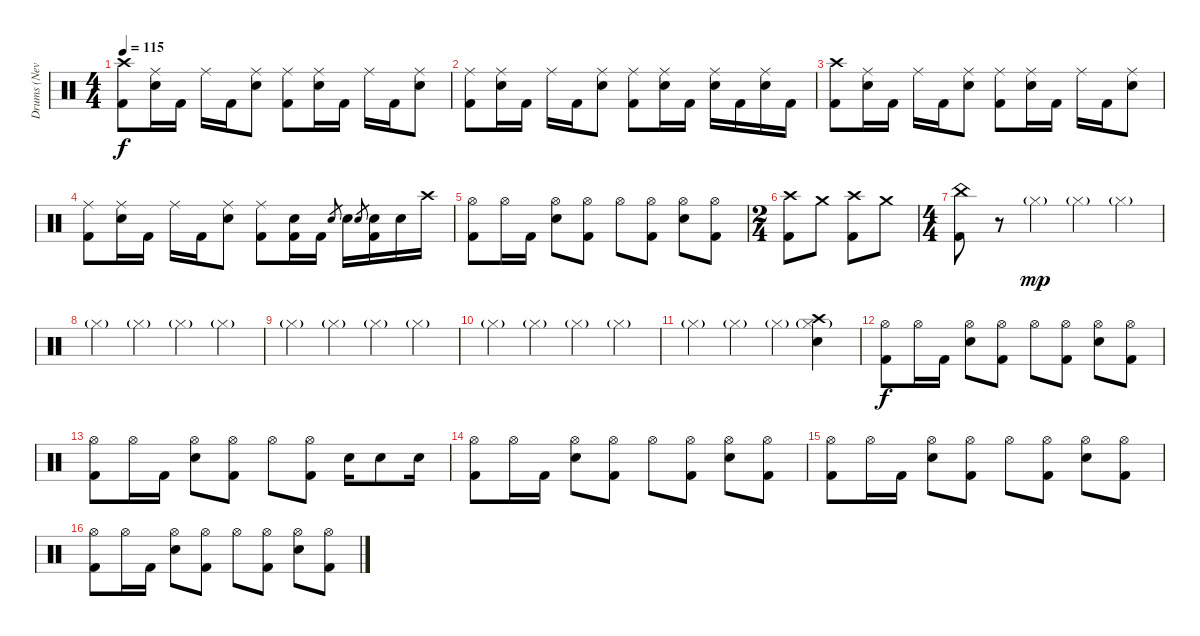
\track ("Drums (Nevi)" "Drums (Nev") {instrument percussion}
\staff {score}
\articulation defaults
\ts (4 4)
\tempo 115
\clef neutral
\ks c
("Kick (hit) 2" "Crash high (hit)").8{dy f} ("Snare (hit) 2" "Ride (middle)").16 "Kick (hit) 2".16 "Ride (middle)".16 "Kick (hit) 2".16 ("Snare (hit) 2" "Ride (middle)").8 ("Kick (hit) 2" "Ride (middle)").8 ("Snare (hit) 2" "Ride (middle)").16 "Kick (hit) 2".16 "Ride (middle)".16 "Kick (hit) 2".16 ("Snare (hit) 2" "Ride (middle)").8 |
("Kick (hit) 2" "Ride (middle)").8 ("Snare (hit) 2" "Ride (middle)").16 "Kick (hit) 2".16 "Ride (middle)".16 "Kick (hit) 2".16 ("Snare (hit) 2" "Ride (middle)").8 ("Kick (hit) 2" "Ride (middle)").8 ("Snare (hit) 2" "Ride (middle)").16 "Kick (hit) 2".16 ("Snare (hit) 2" "Ride (middle)").16 "Kick (hit) 2".16 ("Snare (hit) 2" "Ride (middle)").16 "Kick (hit) 2".16 |
("Kick (hit) 2" "Crash high (hit)").8 ("Snare (hit) 2" "Ride (middle)").16 "Kick (hit) 2".16 "Ride (middle)".16 "Kick (hit) 2".16 ("Snare (hit) 2" "Ride (middle)").8 ("Kick (hit) 2" "Ride (middle)").8 ("Snare (hit) 2" "Ride (middle)").16 "Kick (hit) 2".16 "Ride (middle)".16 "Kick (hit) 2".16 ("Snare (hit) 2" "Ride (middle)").8 |
("Kick (hit) 2" "Ride (middle)").8 ("Snare (hit) 2" "Ride (middle)").16 "Kick (hit) 2".16 "Ride (middle)".16 "Kick (hit) 2".16 ("Snare (hit) 2" "Ride (middle)").8 ("Kick (hit) 2" "Ride (middle)").8 ("Kick (hit) 2" "Snare (hit) 2").16 "Kick (hit) 2".16 "Snare (hit) 2".8{gr} "Snare (hit) 2".16 "Snare (hit) 2".8{gr} ("Kick (hit) 2" "Snare (hit) 2").16 "Snare (hit) 2".16 "Crash high (hit)".16 |
("Kick (hit) 2" "Hi-Hat (open)").8 "Hi-Hat (open)".16 "Kick (hit) 2".16 ("Snare (hit) 2" "Hi-Hat (open)").8 ("Kick (hit) 2" "Hi-Hat (open)").8 "Hi-Hat (open)".8 ("Kick (hit) 2" "Hi-Hat (open)").8 ("Snare (hit) 2" "Hi-Hat (open)").8 ("Kick (hit) 2" "Hi-Hat (open)").8 |
\ts (2 4)
("Kick (hit) 2" "Crash high (hit)").8 "Crash medium (hit)".8 ("Kick (hit) 2" "Crash high (hit)").8 "Crash medium (hit)".8 |
\ts (4 4)
("Kick (hit) 2" "China (hit)").8 r.8 "Hi-Hat (closed)"{g}.4{dy mp} "Hi-Hat (closed)"{g}.4 "Hi-Hat (closed)"{g}.4 |
"Hi-Hat (closed)"{g}.4 "Hi-Hat (closed)"{g}.4 "Hi-Hat (closed)"{g}.4 "Hi-Hat (closed)"{g}.4 |
"Hi-Hat (closed)"{g}.4 "Hi-Hat (closed)"{g}.4 "Hi-Hat (closed)"{g}.4 "Hi-Hat (closed)"{g}.4 |
"Hi-Hat (closed)"{g}.4 "Hi-Hat (closed)"{g}.4 "Hi-Hat (closed)"{g}.4 "Hi-Hat (closed)"{g}.4 |
"Hi-Hat (closed)"{g}.4 "Hi-Hat (closed)"{g}.4 "Hi-Hat (closed)"{g}.4 ("Hi-Hat (closed)"{g} "Snare (hit) 2" "Crash high (hit)").4 |
("Kick (hit) 2" "Hi-Hat (open)").8{dy f} "Hi-Hat (open)".16 "Kick (hit) 2".16 ("Snare (hit) 2" "Hi-Hat (open)").8 ("Kick (hit) 2" "Hi-Hat (open)").8 "Hi-Hat (open)".8 ("Kick (hit) 2" "Hi-Hat (open)").8 ("Snare (hit) 2" "Hi-Hat (open)").8 ("Kick (hit) 2" "Hi-Hat (open)").8 |
("Kick (hit) 2" "Hi-Hat (open)").8 "Hi-Hat (open)".16 "Kick (hit) 2".16 ("Snare (hit) 2" "Hi-Hat (open)").8 ("Kick (hit) 2" "Hi-Hat (open)").8 "Hi-Hat (open)".8 ("Kick (hit) 2" "Hi-Hat (open)").8 "Snare (hit) 2".16 "Snare (hit) 2".8 "Snare (hit) 2".16 |
("Kick (hit) 2" "Hi-Hat (open)").8 "Hi-Hat (open)".16 "Kick (hit) 2".16 ("Snare (hit) 2" "Hi-Hat (open)").8 ("Kick (hit) 2" "Hi-Hat (open)").8 "Hi-Hat (open)".8 ("Kick (hit) 2" "Hi-Hat (open)").8 ("Snare (hit) 2" "Hi-Hat (open)").8 ("Kick (hit) 2" "Hi-Hat (open)").8 |
("Kick (hit) 2" "Hi-Hat (open)").8 "Hi-Hat (open)".16 "Kick (hit) 2".16 ("Snare (hit) 2" "Hi-Hat (open)").8 ("Kick (hit) 2" "Hi-Hat (open)").8 "Hi-Hat (open)".8 ("Kick (hit) 2" "Hi-Hat (open)").8 ("Snare (hit) 2" "Hi-Hat (open)").8 ("Kick (hit) 2" "Hi-Hat (open)").8 |
("Kick (hit) 2" "Hi-Hat (open)").8 "Hi-Hat (open)".16 "Kick (hit) 2".16 ("Snare (hit) 2" "Hi-Hat (open)").8 ("Kick (hit) 2" "Hi-Hat (open)").8 "Hi-Hat (open)".8 ("Kick (hit) 2" "Hi-Hat (open)").8 ("Snare (hit) 2" "Hi-Hat (open)").8 ("Kick (hit) 2" "Hi-Hat (open)").8
